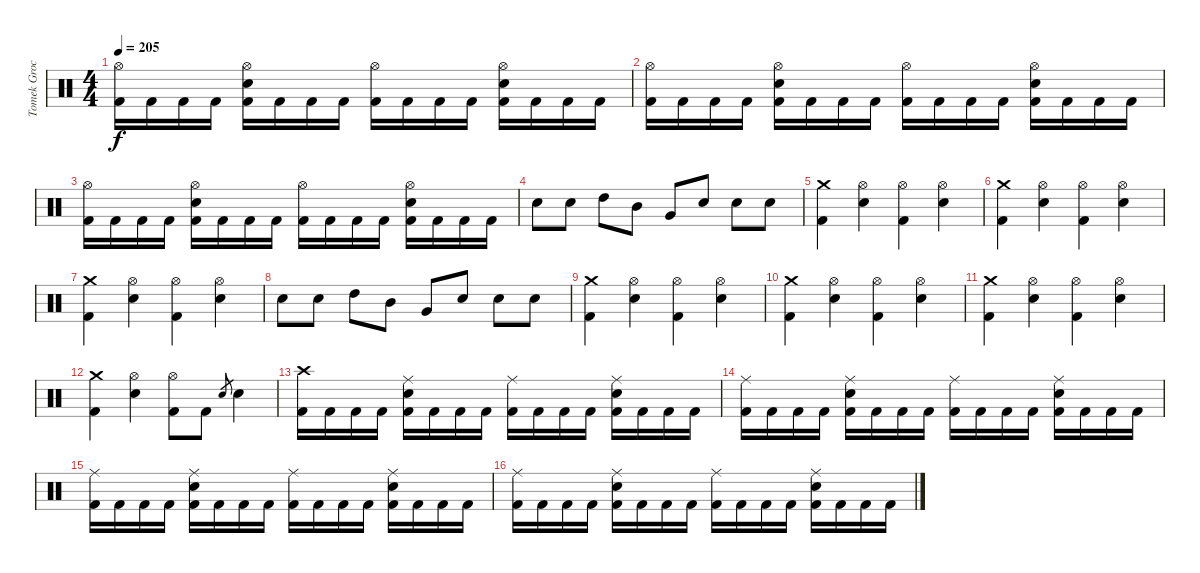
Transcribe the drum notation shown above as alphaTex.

\track ("Tomek Grochowski" "Tomek Groc") {instrument percussion}
\staff {score}
\articulation defaults
\ts (4 4)
\tempo 205
\clef neutral
\ks c
("Hi-Hat (open)" "Kick (hit) 2").16{dy f} "Kick (hit) 2".16 "Kick (hit) 2".16 "Kick (hit) 2".16 ("Hi-Hat (open)" "Electric Snare (hit)" "Kick (hit) 2").16 "Kick (hit) 2".16 "Kick (hit) 2".16 "Kick (hit) 2".16 ("Hi-Hat (open)" "Kick (hit) 2").16 "Kick (hit) 2".16 "Kick (hit) 2".16 "Kick (hit) 2".16 ("Hi-Hat (open)" "Electric Snare (hit)" "Kick (hit) 2").16 "Kick (hit) 2".16 "Kick (hit) 2".16 "Kick (hit) 2".16 |
("Hi-Hat (open)" "Kick (hit) 2").16 "Kick (hit) 2".16 "Kick (hit) 2".16 "Kick (hit) 2".16 ("Hi-Hat (open)" "Electric Snare (hit)" "Kick (hit) 2").16 "Kick (hit) 2".16 "Kick (hit) 2".16 "Kick (hit) 2".16 ("Hi-Hat (open)" "Kick (hit) 2").16 "Kick (hit) 2".16 "Kick (hit) 2".16 "Kick (hit) 2".16 ("Hi-Hat (open)" "Electric Snare (hit)" "Kick (hit) 2").16 "Kick (hit) 2".16 "Kick (hit) 2".16 "Kick (hit) 2".16 |
("Hi-Hat (open)" "Kick (hit) 2").16 "Kick (hit) 2".16 "Kick (hit) 2".16 "Kick (hit) 2".16 ("Hi-Hat (open)" "Electric Snare (hit)" "Kick (hit) 2").16 "Kick (hit) 2".16 "Kick (hit) 2".16 "Kick (hit) 2".16 ("Hi-Hat (open)" "Kick (hit) 2").16 "Kick (hit) 2".16 "Kick (hit) 2".16 "Kick (hit) 2".16 ("Hi-Hat (open)" "Electric Snare (hit)" "Kick (hit) 2").16 "Kick (hit) 2".16 "Kick (hit) 2".16 "Kick (hit) 2".16 |
"Electric Snare (hit)".8 "Electric Snare (hit)".8 "High Tom (hit)".8 "Mid Tom (hit)".8 "Very Low Tom (hit)".8 "Electric Snare (hit)".8 "Electric Snare (hit)".8 "Electric Snare (hit)".8 |
("Crash medium (hit)" "Kick (hit) 2").4 ("Hi-Hat (open)" "Electric Snare (hit)").4 ("Hi-Hat (open)" "Kick (hit) 2").4 ("Hi-Hat (open)" "Electric Snare (hit)").4 |
("Crash medium (hit)" "Kick (hit) 2").4 ("Hi-Hat (open)" "Electric Snare (hit)").4 ("Hi-Hat (open)" "Kick (hit) 2").4 ("Hi-Hat (open)" "Electric Snare (hit)").4 |
("Crash medium (hit)" "Kick (hit) 2").4 ("Hi-Hat (open)" "Electric Snare (hit)").4 ("Hi-Hat (open)" "Kick (hit) 2").4 ("Hi-Hat (open)" "Electric Snare (hit)").4 |
"Electric Snare (hit)".8 "Electric Snare (hit)".8 "High Tom (hit)".8 "Mid Tom (hit)".8 "Very Low Tom (hit)".8 "Electric Snare (hit)".8 "Electric Snare (hit)".8 "Electric Snare (hit)".8 |
("Crash medium (hit)" "Kick (hit) 2").4 ("Hi-Hat (open)" "Electric Snare (hit)").4 ("Hi-Hat (open)" "Kick (hit) 2").4 ("Hi-Hat (open)" "Electric Snare (hit)").4 |
("Crash medium (hit)" "Kick (hit) 2").4 ("Hi-Hat (open)" "Electric Snare (hit)").4 ("Hi-Hat (open)" "Kick (hit) 2").4 ("Hi-Hat (open)" "Electric Snare (hit)").4 |
("Crash medium (hit)" "Kick (hit) 2").4 ("Hi-Hat (open)" "Electric Snare (hit)").4 ("Hi-Hat (open)" "Kick (hit) 2").4 ("Hi-Hat (open)" "Electric Snare (hit)").4 |
("Crash medium (hit)" "Kick (hit) 2").4 ("Hi-Hat (open)" "Electric Snare (hit)").4 ("Hi-Hat (open)" "Kick (hit) 2").8 "Kick (hit) 2".8 "Electric Snare (hit)".8{gr} "Electric Snare (hit)".4 |
("Crash high (hit)" "Kick (hit) 2").16 "Kick (hit) 2".16 "Kick (hit) 2".16 "Kick (hit) 2".16 ("Ride (middle)" "Electric Snare (hit)" "Kick (hit) 2").16 "Kick (hit) 2".16 "Kick (hit) 2".16 "Kick (hit) 2".16 ("Ride (middle)" "Kick (hit) 2").16 "Kick (hit) 2".16 "Kick (hit) 2".16 "Kick (hit) 2".16 ("Ride (middle)" "Electric Snare (hit)" "Kick (hit) 2").16 "Kick (hit) 2".16 "Kick (hit) 2".16 "Kick (hit) 2".16 |
("Ride (middle)" "Kick (hit) 2").16 "Kick (hit) 2".16 "Kick (hit) 2".16 "Kick (hit) 2".16 ("Ride (middle)" "Electric Snare (hit)" "Kick (hit) 2").16 "Kick (hit) 2".16 "Kick (hit) 2".16 "Kick (hit) 2".16 ("Ride (middle)" "Kick (hit) 2").16 "Kick (hit) 2".16 "Kick (hit) 2".16 "Kick (hit) 2".16 ("Ride (middle)" "Electric Snare (hit)" "Kick (hit) 2").16 "Kick (hit) 2".16 "Kick (hit) 2".16 "Kick (hit) 2".16 |
("Ride (middle)" "Kick (hit) 2").16 "Kick (hit) 2".16 "Kick (hit) 2".16 "Kick (hit) 2".16 ("Ride (middle)" "Electric Snare (hit)" "Kick (hit) 2").16 "Kick (hit) 2".16 "Kick (hit) 2".16 "Kick (hit) 2".16 ("Ride (middle)" "Kick (hit) 2").16 "Kick (hit) 2".16 "Kick (hit) 2".16 "Kick (hit) 2".16 ("Ride (middle)" "Electric Snare (hit)" "Kick (hit) 2").16 "Kick (hit) 2".16 "Kick (hit) 2".16 "Kick (hit) 2".16 |
("Ride (middle)" "Kick (hit) 2").16 "Kick (hit) 2".16 "Kick (hit) 2".16 "Kick (hit) 2".16 ("Ride (middle)" "Electric Snare (hit)" "Kick (hit) 2").16 "Kick (hit) 2".16 "Kick (hit) 2".16 "Kick (hit) 2".16 ("Ride (middle)" "Kick (hit) 2").16 "Kick (hit) 2".16 "Kick (hit) 2".16 "Kick (hit) 2".16 ("Ride (middle)" "Electric Snare (hit)" "Kick (hit) 2").16 "Kick (hit) 2".16 "Kick (hit) 2".16 "Kick (hit) 2".16
